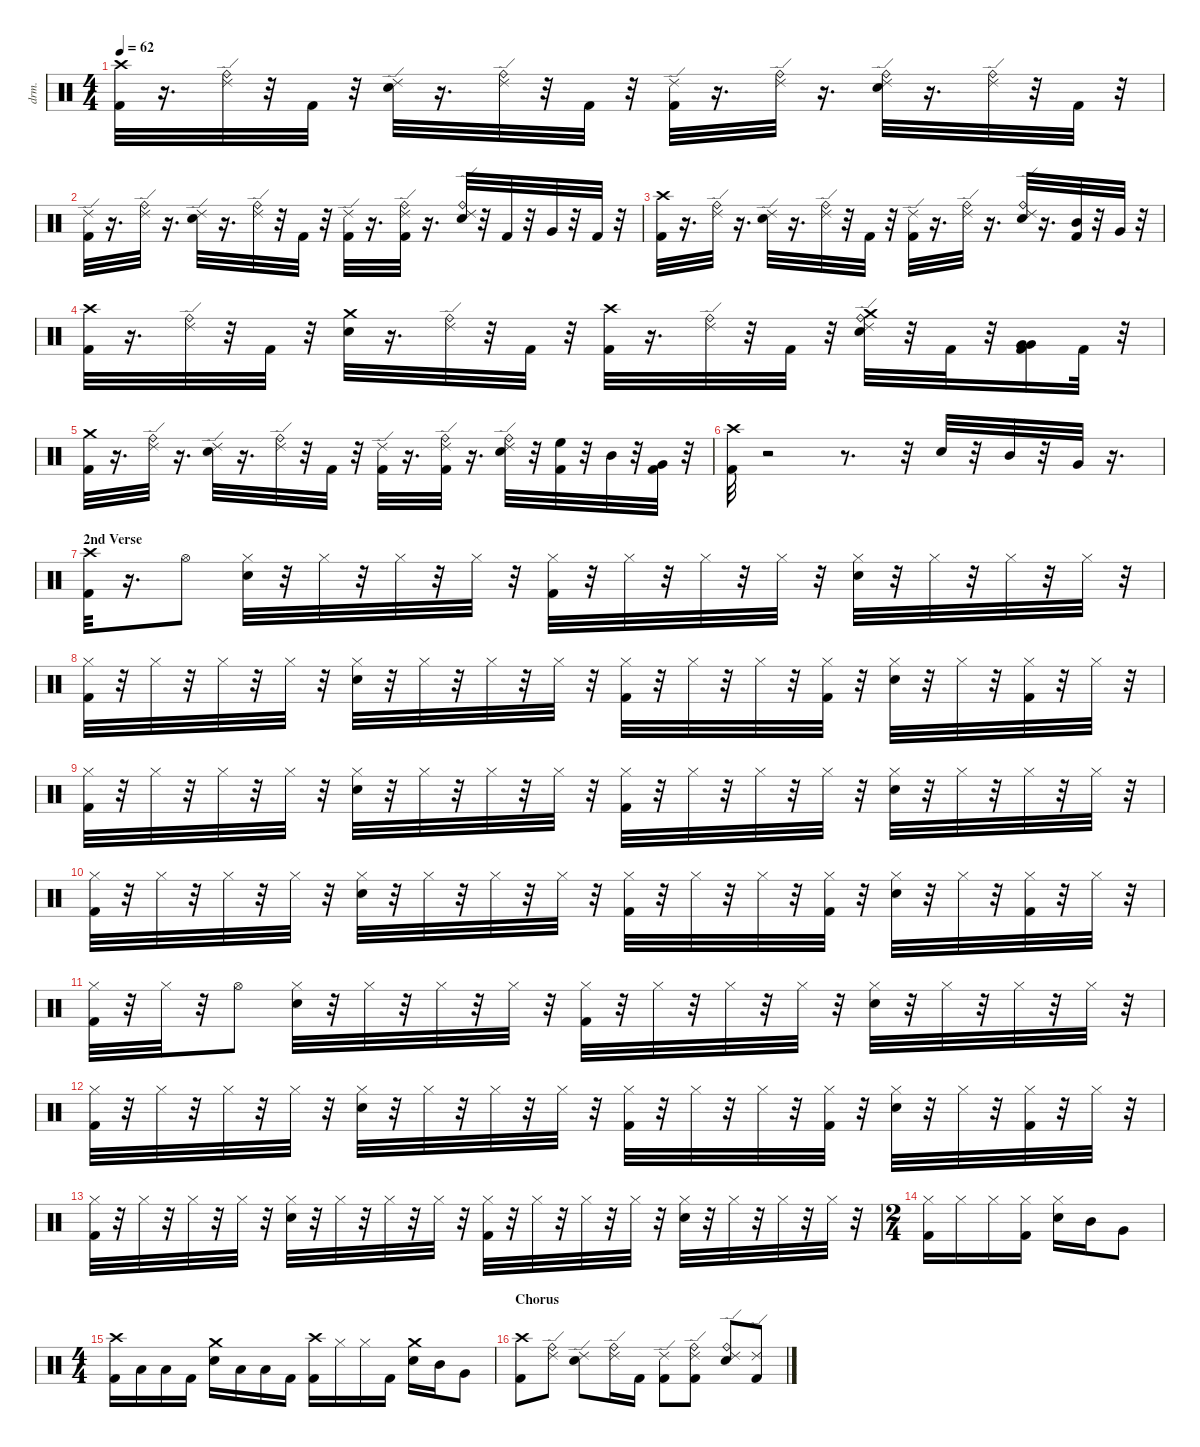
\defaultSystemsLayout 4
\hideDynamics
\bracketExtendMode nobrackets
\otherSystemsTrackNameOrientation horizontal
\track ("Drums" "drm.") {instrument percussion}
\staff {score}
\articulation defaults
\ts (4 4)
\tempo 62
\clef neutral
\ks c
("Crash high (hit)" "Kick (hit) 2").32{dy mf} r.16{d} ("Ride (edge) 2" "Ride (bell)").32 r.32 "Kick (hit) 2".32 r.32 ("Ride (edge) 2" "Snare (hit) 2").32 r.16{d} ("Ride (bell)" "Ride (edge) 2").32 r.32 "Kick (hit) 2".32 r.32 ("Kick (hit) 2" "Ride (edge) 2").32 r.16{d} ("Ride (bell)" "Ride (edge) 2").32 r.16{d} ("Snare (hit) 2" "Ride (bell)" "Ride (edge) 2").32 r.16{d} ("Ride (bell)" "Ride (edge) 2").32 r.32 "Kick (hit) 2".32 r.32 |
("Kick (hit) 2" "Ride (edge) 2").32 r.16{d} ("Ride (bell)" "Ride (edge) 2").32 r.16{d} ("Snare (hit) 2" "Ride (edge) 2").32 r.16{d} ("Ride (bell)" "Ride (edge) 2").32 r.32 "Kick (hit) 2".32 r.32 ("Kick (hit) 2" "Ride (edge) 2").32 r.16{d} ("Ride (bell)" "Kick (hit) 2" "Ride (edge) 2").32 r.16{d} ("Snare (hit) 2" "Ride (edge) 2" "Ride (bell)").32 r.32 "Kick (hit) 2".32 r.32 "Very Low Tom (hit)".32 r.32 "Kick (hit) 2".32 r.32 |
("Kick (hit) 2" "Crash high (hit)").32 r.16{d} ("Ride (bell)" "Ride (edge) 2").32 r.16{d} ("Snare (hit) 2" "Ride (edge) 2").32 r.16{d} ("Ride (bell)" "Ride (edge) 2").32 r.32 "Kick (hit) 2".32 r.32 ("Ride (edge) 2" "Kick (hit) 2").32 r.16{d} ("Ride (bell)" "Ride (edge) 2").32 r.16{d} ("Ride (bell)" "Ride (edge) 2" "Snare (hit) 2").32 r.16{d} ("Mid Tom (hit)" "Kick (hit) 2").32 r.32 "Very Low Tom (hit)".32 r.32 |
("Kick (hit) 2" "Crash high (hit)").32 r.16{d} ("Ride (edge) 2" "Ride (bell)").32 r.32 "Kick (hit) 2".32 r.32 ("Snare (hit) 2" "Crash medium (hit)").32 r.16{d} ("Ride (edge) 2" "Ride (bell)").32 r.32 "Kick (hit) 2".32 r.32 ("Crash high (hit)" "Kick (hit) 2").32 r.16{d} ("Ride (edge) 2" "Ride (bell)").32 r.32 "Kick (hit) 2".32 r.32 ("Ride (edge) 2" "Crash medium (hit)" "Ride (bell)" "Snare (hit) 2").32 r.32 "Kick (hit) 2".32 r.32 ("Kick (hit) 2" "Very Low Tom (hit)" "Very Low Tom (hit)").16 "Kick (hit) 2".32 r.32 |
("Crash medium (hit)" "Kick (hit) 2").32 r.16{d} ("Ride (edge) 2" "Ride (bell)").32 r.16{d} ("Snare (hit) 2" "Ride (edge) 2").32 r.16{d} ("Ride (bell)" "Ride (edge) 2").32 r.32 "Kick (hit) 2".32 r.32 ("Kick (hit) 2" "Ride (edge) 2").32 r.16{d} ("Kick (hit) 2" "Ride (edge) 2" "Ride (bell)").32 r.16{d} ("Snare (hit) 2" "Ride (edge) 2" "Ride (bell)").32 r.32 ("Kick (hit) 2" "High Floor Tom (hit)").32 r.32 "Mid Tom (hit)".32 r.32 ("Very Low Tom (hit)" "Kick (hit) 2").32 r.32 |
("Kick (hit) 2" "Crash high (hit)").32 r.2 r.8{d} r.32 "Snare (hit) 2".32 r.32 "Mid Tom (hit)".32 r.32 "Very Low Tom (hit)".32 r.16{d} |
\section ("" "2nd Verse")
("Crash high (hit)" "Kick (hit) 2").32 r.16{d} "Hi-Hat (open)".8 ("Hi-Hat (closed)" "Snare (hit) 2").32 r.32 "Hi-Hat (closed)".32 r.32 "Hi-Hat (closed)".32 r.32 "Hi-Hat (closed)".32 r.32 ("Hi-Hat (closed)" "Kick (hit) 2").32 r.32 "Hi-Hat (closed)".32 r.32 "Hi-Hat (closed)".32 r.32 "Hi-Hat (closed)".32 r.32 ("Snare (hit) 2" "Hi-Hat (closed)").32 r.32 "Hi-Hat (closed)".32 r.32 "Hi-Hat (closed)".32 r.32 "Hi-Hat (closed)".32 r.32 |
("Kick (hit) 2" "Hi-Hat (closed)").32 r.32 "Hi-Hat (closed)".32 r.32 "Hi-Hat (closed)".32 r.32 "Hi-Hat (closed)".32 r.32 ("Hi-Hat (closed)" "Snare (hit) 2").32 r.32 "Hi-Hat (closed)".32 r.32 "Hi-Hat (closed)".32 r.32 "Hi-Hat (closed)".32 r.32 ("Kick (hit) 2" "Hi-Hat (closed)").32 r.32 "Hi-Hat (closed)".32 r.32 "Hi-Hat (closed)".32 r.32 ("Hi-Hat (closed)" "Kick (hit) 2").32 r.32 ("Snare (hit) 2" "Hi-Hat (closed)").32 r.32 "Hi-Hat (closed)".32 r.32 ("Kick (hit) 2" "Hi-Hat (closed)").32 r.32 "Hi-Hat (closed)".32 r.32 |
("Kick (hit) 2" "Hi-Hat (closed)").32 r.32 "Hi-Hat (closed)".32 r.32 "Hi-Hat (closed)".32 r.32 "Hi-Hat (closed)".32 r.32 ("Snare (hit) 2" "Hi-Hat (closed)").32 r.32 "Hi-Hat (closed)".32 r.32 "Hi-Hat (closed)".32 r.32 "Hi-Hat (closed)".32 r.32 ("Hi-Hat (closed)" "Kick (hit) 2").32 r.32 "Hi-Hat (closed)".32 r.32 "Hi-Hat (closed)".32 r.32 "Hi-Hat (closed)".32 r.32 ("Snare (hit) 2" "Hi-Hat (closed)").32 r.32 "Hi-Hat (closed)".32 r.32 "Hi-Hat (closed)".32 r.32 "Hi-Hat (closed)".32 r.32 |
("Hi-Hat (closed)" "Kick (hit) 2").32 r.32 "Hi-Hat (closed)".32 r.32 "Hi-Hat (closed)".32 r.32 "Hi-Hat (closed)".32 r.32 ("Hi-Hat (closed)" "Snare (hit) 2").32 r.32 "Hi-Hat (closed)".32 r.32 "Hi-Hat (closed)".32 r.32 "Hi-Hat (closed)".32 r.32 ("Hi-Hat (closed)" "Kick (hit) 2").32 r.32 "Hi-Hat (closed)".32 r.32 "Hi-Hat (closed)".32 r.32 ("Hi-Hat (closed)" "Kick (hit) 2").32 r.32 ("Snare (hit) 2" "Hi-Hat (closed)").32 r.32 "Hi-Hat (closed)".32 r.32 ("Hi-Hat (closed)" "Kick (hit) 2").32 r.32 "Hi-Hat (closed)".32 r.32 |
("Kick (hit) 2" "Hi-Hat (closed)").32 r.32 "Hi-Hat (closed)".32 r.32 "Hi-Hat (open)".8 ("Hi-Hat (closed)" "Snare (hit) 2").32 r.32 "Hi-Hat (closed)".32 r.32 "Hi-Hat (closed)".32 r.32 "Hi-Hat (closed)".32 r.32 ("Hi-Hat (closed)" "Kick (hit) 2").32 r.32 "Hi-Hat (closed)".32 r.32 "Hi-Hat (closed)".32 r.32 "Hi-Hat (closed)".32 r.32 ("Hi-Hat (closed)" "Snare (hit) 2").32 r.32 "Hi-Hat (closed)".32 r.32 "Hi-Hat (closed)".32 r.32 "Hi-Hat (closed)".32 r.32 |
("Hi-Hat (closed)" "Kick (hit) 2").32 r.32 "Hi-Hat (closed)".32 r.32 "Hi-Hat (closed)".32 r.32 "Hi-Hat (closed)".32 r.32 ("Snare (hit) 2" "Hi-Hat (closed)").32 r.32 "Hi-Hat (closed)".32 r.32 "Hi-Hat (closed)".32 r.32 "Hi-Hat (closed)".32 r.32 ("Hi-Hat (closed)" "Kick (hit) 2").32 r.32 "Hi-Hat (closed)".32 r.32 "Hi-Hat (closed)".32 r.32 ("Hi-Hat (closed)" "Kick (hit) 2").32 r.32 ("Snare (hit) 2" "Hi-Hat (closed)").32 r.32 "Hi-Hat (closed)".32 r.32 ("Kick (hit) 2" "Hi-Hat (closed)").32 r.32 "Hi-Hat (closed)".32 r.32 |
("Kick (hit) 2" "Hi-Hat (closed)").32 r.32 "Hi-Hat (closed)".32 r.32 "Hi-Hat (closed)".32 r.32 "Hi-Hat (closed)".32 r.32 ("Snare (hit) 2" "Hi-Hat (closed)").32 r.32 "Hi-Hat (closed)".32 r.32 "Hi-Hat (closed)".32 r.32 "Hi-Hat (closed)".32 r.32 ("Hi-Hat (closed)" "Kick (hit) 2").32 r.32 "Hi-Hat (closed)".32 r.32 "Hi-Hat (closed)".32 r.32 "Hi-Hat (closed)".32 r.32 ("Hi-Hat (closed)" "Snare (hit) 2").32 r.32 "Hi-Hat (closed)".32 r.32 "Hi-Hat (closed)".32 r.32 "Hi-Hat (closed)".32 r.32 |
\ts (2 4)
("Kick (hit) 2" "Hi-Hat (closed)").16 "Hi-Hat (closed)".16 "Hi-Hat (closed)".16 ("Kick (hit) 2" "Hi-Hat (closed)").16 ("Snare (hit) 2" "Hi-Hat (closed)").16 "Mid Tom (hit)".16 "Very Low Tom (hit)".8 |
\ts (4 4)
("Crash high (hit)" "Kick (hit) 2").16 "Low Floor Tom (hit)".16 "Low Floor Tom (hit)".16 "Kick (hit) 2".16 ("Crash medium (hit)" "Snare (hit) 2").16 "Low Floor Tom (hit)".16 "Low Floor Tom (hit)".16 "Kick (hit) 2".16 ("Crash high (hit)" "Kick (hit) 2").16 "Hi-Hat (closed)".16 "Hi-Hat (closed)".16 "Kick (hit) 2".16 ("Crash medium (hit)" "Snare (hit) 2").16 "Mid Tom (hit)".16 "Very Low Tom (hit)".8 |
\section ("" "Chorus")
("Crash high (hit)" "Kick (hit) 2").8 ("Ride (bell)" "Ride (edge) 2").8 ("Ride (edge) 2" "Snare (hit) 2").8 ("Ride (bell)" "Ride (edge) 2").16 "Kick (hit) 2".16 ("Ride (edge) 2" "Kick (hit) 2").8 ("Ride (bell)" "Ride (edge) 2" "Kick (hit) 2").8 ("Ride (bell)" "Ride (edge) 2" "Snare (hit) 2").8 ("Ride (edge) 2" "Kick (hit) 2").8
